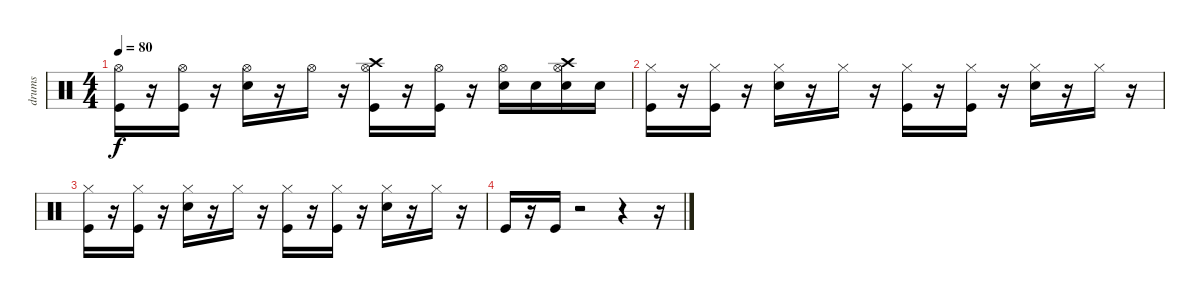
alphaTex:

\track ("drums" "drums") {instrument percussion}
\staff {score}
\articulation defaults
\ts (4 4)
\tempo 80
\clef neutral
\ks c
("Hi-Hat (open)" "Kick (hit)").16{dy f} r.16 ("Hi-Hat (open)" "Kick (hit)").16 r.16 ("Electric Snare (hit)" "Hi-Hat (open)").16 r.16 "Hi-Hat (open)".16 r.16 ("Kick (hit)" "Hi-Hat (open)" "Crash high (hit)").16 r.16 ("Hi-Hat (open)" "Kick (hit)").16 r.16 ("Electric Snare (hit)" "Hi-Hat (open)").16 "Electric Snare (hit)".16 ("Electric Snare (hit)" "Hi-Hat (open)" "Crash high (hit)").16 "Electric Snare (hit)".16 |
("Kick (hit)" "Hi-Hat (closed)").16 r.16 ("Hi-Hat (closed)" "Kick (hit)").16 r.16 ("Hi-Hat (closed)" "Electric Snare (hit)").16 r.16 "Hi-Hat (closed)".16 r.16 ("Kick (hit)" "Hi-Hat (closed)").16 r.16 ("Hi-Hat (closed)" "Kick (hit)").16 r.16 ("Hi-Hat (closed)" "Electric Snare (hit)").16 r.16 "Hi-Hat (closed)".16 r.16 |
("Kick (hit)" "Hi-Hat (closed)").16 r.16 ("Hi-Hat (closed)" "Kick (hit)").16 r.16 ("Hi-Hat (closed)" "Electric Snare (hit)").16 r.16 "Hi-Hat (closed)".16 r.16 ("Kick (hit)" "Hi-Hat (closed)").16 r.16 ("Hi-Hat (closed)" "Kick (hit)").16 r.16 ("Hi-Hat (closed)" "Electric Snare (hit)").16 r.16 "Hi-Hat (closed)".16 r.16 |
"Kick (hit)".16 r.16 "Kick (hit)".16 r.2 r.4 r.16
